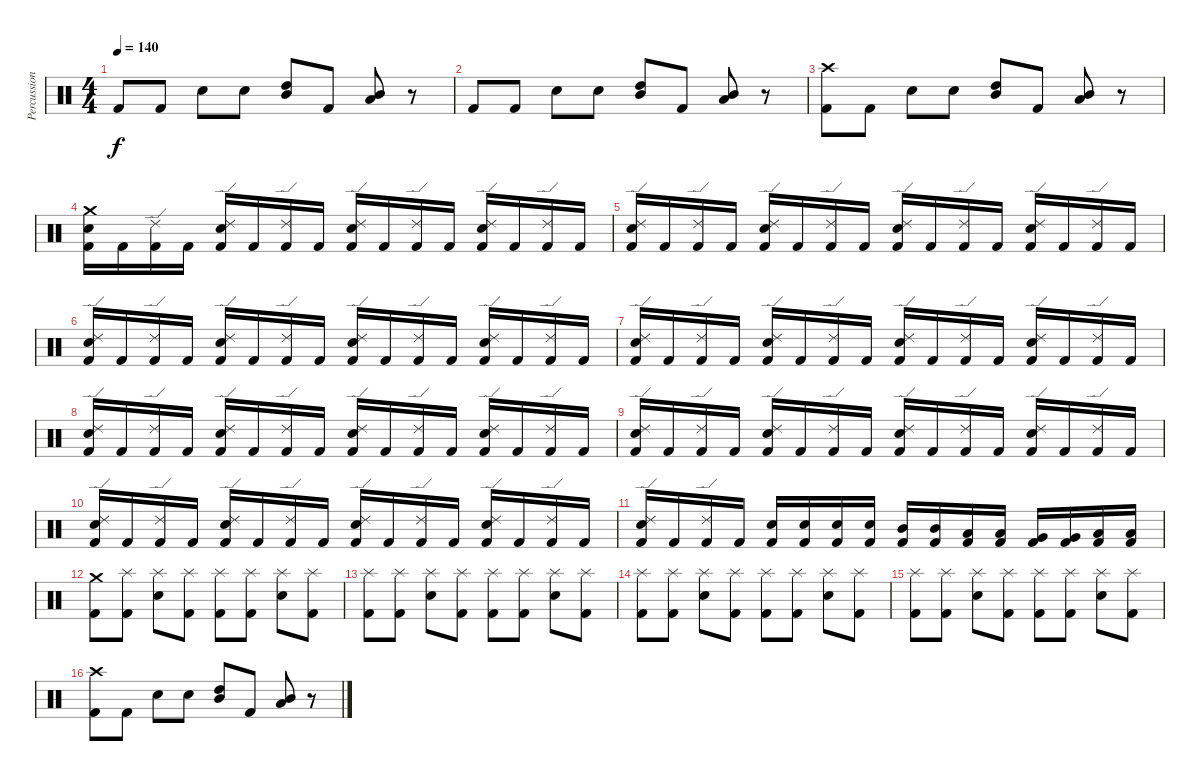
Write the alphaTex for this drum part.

\track ("Percussion" "Percussion") {instrument percussion}
\staff {score}
\articulation defaults
\ts (4 4)
\tempo 140
\clef neutral
\ks c "Kick (hit) 2".8{dy f} "Kick (hit) 2".8 "Electric Snare (hit)".8 "Electric Snare (hit)".8
("Mid Tom (hit)" "High Tom (hit)").8 "Kick (hit) 2".8 ("Low Tom (hit)" "Mid Tom (hit)").8 r.8 |
"Kick (hit) 2".8 "Kick (hit) 2".8 "Electric Snare (hit)".8 "Electric Snare (hit)".8 ("Mid Tom (hit)" "High Tom (hit)").8 "Kick (hit) 2".8 ("Low Tom (hit)" "Mid Tom (hit)").8 r.8 |
("Crash high (hit)" "Kick (hit) 2").8 "Kick (hit) 2".8 "Electric Snare (hit)".8 "Electric Snare (hit)".8 ("Mid Tom (hit)" "High Tom (hit)").8 "Kick (hit) 2".8 ("Low Tom (hit)" "Mid Tom (hit)").8 r.8 |
("Crash medium (hit)" "Electric Snare (hit)" "Kick (hit) 2").16 "Kick (hit) 2".16 ("Ride (edge) 2" "Kick (hit) 2").16 "Kick (hit) 2".16 ("Ride (edge) 2" "Electric Snare (hit)" "Kick (hit) 2").16 "Kick (hit) 2".16 ("Ride (edge) 2" "Kick (hit) 2").16 "Kick (hit) 2".16 ("Ride (edge) 2" "Electric Snare (hit)" "Kick (hit) 2").16 "Kick (hit) 2".16 ("Ride (edge) 2" "Kick (hit) 2").16 "Kick (hit) 2".16 ("Ride (edge) 2" "Electric Snare (hit)" "Kick (hit) 2").16 "Kick (hit) 2".16 ("Ride (edge) 2" "Kick (hit) 2").16 "Kick (hit) 2".16 |
("Ride (edge) 2" "Electric Snare (hit)" "Kick (hit) 2").16 "Kick (hit) 2".16 ("Ride (edge) 2" "Kick (hit) 2").16 "Kick (hit) 2".16 ("Ride (edge) 2" "Electric Snare (hit)" "Kick (hit) 2").16 "Kick (hit) 2".16 ("Ride (edge) 2" "Kick (hit) 2").16 "Kick (hit) 2".16 ("Ride (edge) 2" "Electric Snare (hit)" "Kick (hit) 2").16 "Kick (hit) 2".16 ("Ride (edge) 2" "Kick (hit) 2").16 "Kick (hit) 2".16 ("Ride (edge) 2" "Electric Snare (hit)" "Kick (hit) 2").16 "Kick (hit) 2".16 ("Ride (edge) 2" "Kick (hit) 2").16 "Kick (hit) 2".16 |
("Ride (edge) 2" "Electric Snare (hit)" "Kick (hit) 2").16 "Kick (hit) 2".16 ("Ride (edge) 2" "Kick (hit) 2").16 "Kick (hit) 2".16 ("Ride (edge) 2" "Electric Snare (hit)" "Kick (hit) 2").16 "Kick (hit) 2".16 ("Ride (edge) 2" "Kick (hit) 2").16 "Kick (hit) 2".16 ("Ride (edge) 2" "Electric Snare (hit)" "Kick (hit) 2").16 "Kick (hit) 2".16 ("Ride (edge) 2" "Kick (hit) 2").16 "Kick (hit) 2".16 ("Ride (edge) 2" "Electric Snare (hit)" "Kick (hit) 2").16 "Kick (hit) 2".16 ("Ride (edge) 2" "Kick (hit) 2").16 "Kick (hit) 2".16 |
("Ride (edge) 2" "Electric Snare (hit)" "Kick (hit) 2").16 "Kick (hit) 2".16 ("Ride (edge) 2" "Kick (hit) 2").16 "Kick (hit) 2".16 ("Ride (edge) 2" "Electric Snare (hit)" "Kick (hit) 2").16 "Kick (hit) 2".16 ("Ride (edge) 2" "Kick (hit) 2").16 "Kick (hit) 2".16 ("Ride (edge) 2" "Electric Snare (hit)" "Kick (hit) 2").16 "Kick (hit) 2".16 ("Ride (edge) 2" "Kick (hit) 2").16 "Kick (hit) 2".16 ("Ride (edge) 2" "Electric Snare (hit)" "Kick (hit) 2").16 "Kick (hit) 2".16 ("Ride (edge) 2" "Kick (hit) 2").16 "Kick (hit) 2".16 |
("Ride (edge) 2" "Electric Snare (hit)" "Kick (hit) 2").16 "Kick (hit) 2".16 ("Ride (edge) 2" "Kick (hit) 2").16 "Kick (hit) 2".16 ("Ride (edge) 2" "Electric Snare (hit)" "Kick (hit) 2").16 "Kick (hit) 2".16 ("Ride (edge) 2" "Kick (hit) 2").16 "Kick (hit) 2".16 ("Ride (edge) 2" "Electric Snare (hit)" "Kick (hit) 2").16 "Kick (hit) 2".16 ("Ride (edge) 2" "Kick (hit) 2").16 "Kick (hit) 2".16 ("Ride (edge) 2" "Electric Snare (hit)" "Kick (hit) 2").16 "Kick (hit) 2".16 ("Ride (edge) 2" "Kick (hit) 2").16 "Kick (hit) 2".16 |
("Ride (edge) 2" "Electric Snare (hit)" "Kick (hit) 2").16 "Kick (hit) 2".16 ("Ride (edge) 2" "Kick (hit) 2").16 "Kick (hit) 2".16 ("Ride (edge) 2" "Electric Snare (hit)" "Kick (hit) 2").16 "Kick (hit) 2".16 ("Ride (edge) 2" "Kick (hit) 2").16 "Kick (hit) 2".16 ("Ride (edge) 2" "Electric Snare (hit)" "Kick (hit) 2").16 "Kick (hit) 2".16 ("Ride (edge) 2" "Kick (hit) 2").16 "Kick (hit) 2".16 ("Ride (edge) 2" "Electric Snare (hit)" "Kick (hit) 2").16 "Kick (hit) 2".16 ("Ride (edge) 2" "Kick (hit) 2").16 "Kick (hit) 2".16 |
("Ride (edge) 2" "Electric Snare (hit)" "Kick (hit) 2").16 "Kick (hit) 2".16 ("Ride (edge) 2" "Kick (hit) 2").16 "Kick (hit) 2".16 ("Ride (edge) 2" "Electric Snare (hit)" "Kick (hit) 2").16 "Kick (hit) 2".16 ("Ride (edge) 2" "Kick (hit) 2").16 "Kick (hit) 2".16 ("Ride (edge) 2" "Electric Snare (hit)" "Kick (hit) 2").16 "Kick (hit) 2".16 ("Ride (edge) 2" "Kick (hit) 2").16 "Kick (hit) 2".16 ("Ride (edge) 2" "Electric Snare (hit)" "Kick (hit) 2").16 "Kick (hit) 2".16 ("Ride (edge) 2" "Kick (hit) 2").16 "Kick (hit) 2".16 |
("Ride (edge) 2" "Electric Snare (hit)" "Kick (hit) 2").16 "Kick (hit) 2".16 ("Ride (edge) 2" "Kick (hit) 2").16 "Kick (hit) 2".16 ("Electric Snare (hit)" "Kick (hit) 2").16 ("Electric Snare (hit)" "Kick (hit) 2").16 ("Electric Snare (hit)" "Kick (hit) 2").16 ("Electric Snare (hit)" "Kick (hit) 2").16 ("Mid Tom (hit)" "Kick (hit) 2").16 ("Mid Tom (hit)" "Kick (hit) 2").16 ("Low Tom (hit)" "Kick (hit) 2").16 ("Low Tom (hit)" "Kick (hit) 2").16 ("Very Low Tom (hit)" "Kick (hit) 2").16 ("Very Low Tom (hit)" "Kick (hit) 2").16 ("Low Floor Tom (hit)" "Kick (hit) 2").16 ("Low Floor Tom (hit)" "Kick (hit) 2").16 |
("Crash medium (hit)" "Kick (hit) 2").8 ("Splash (hit)" "Kick (hit) 2").8 ("Splash (hit)" "Electric Snare (hit)").8 ("Splash (hit)" "Kick (hit) 2").8 ("Splash (hit)" "Kick (hit) 2").8 ("Splash (hit)" "Kick (hit) 2").8 ("Splash (hit)" "Electric Snare (hit)").8 ("Splash (hit)" "Kick (hit) 2").8 |
("Splash (hit)" "Kick (hit) 2").8 ("Splash (hit)" "Kick (hit) 2").8 ("Splash (hit)" "Electric Snare (hit)").8 ("Splash (hit)" "Kick (hit) 2").8 ("Splash (hit)" "Kick (hit) 2").8 ("Splash (hit)" "Kick (hit) 2").8 ("Splash (hit)" "Electric Snare (hit)").8 ("Splash (hit)" "Kick (hit) 2").8 |
("Splash (hit)" "Kick (hit) 2").8 ("Splash (hit)" "Kick (hit) 2").8 ("Splash (hit)" "Electric Snare (hit)").8 ("Splash (hit)" "Kick (hit) 2").8 ("Splash (hit)" "Kick (hit) 2").8 ("Splash (hit)" "Kick (hit) 2").8 ("Splash (hit)" "Electric Snare (hit)").8 ("Splash (hit)" "Kick (hit) 2").8 |
("Splash (hit)" "Kick (hit) 2").8 ("Splash (hit)" "Kick (hit) 2").8 ("Splash (hit)" "Electric Snare (hit)").8 ("Splash (hit)" "Kick (hit) 2").8 ("Splash (hit)" "Kick (hit) 2").8 ("Splash (hit)" "Kick (hit) 2").8 ("Splash (hit)" "Electric Snare (hit)").8 ("Splash (hit)" "Kick (hit) 2").8 |
("Crash high (hit)" "Kick (hit) 2").8 "Kick (hit) 2".8 "Electric Snare (hit)".8 "Electric Snare (hit)".8 ("Mid Tom (hit)" "High Tom (hit)").8 "Kick (hit) 2".8 ("Low Tom (hit)" "Mid Tom (hit)").8 r.8
